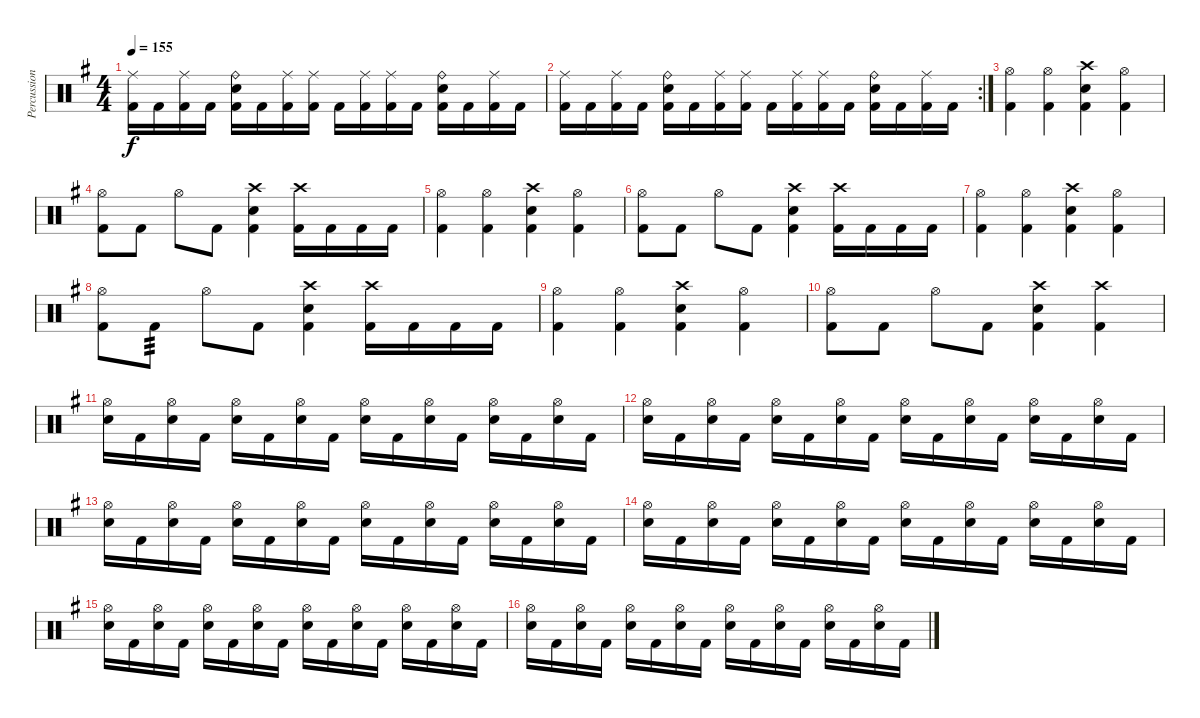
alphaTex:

\track ("Percussion" "Percussion") {instrument percussion}
\staff {score}
\articulation defaults
\ts (4 4)
\tempo 155
\clef neutral
\ks eminor
("Ride (middle)" "Kick (hit) 2").16{dy f} "Kick (hit) 2".16 ("Ride (middle)" "Kick (hit) 2").16 "Kick (hit) 2".16 ("Ride (bell)" "Electric Snare (hit)" "Kick (hit) 2").16 "Kick (hit) 2".16 ("Ride (middle)" "Kick (hit) 2").16 ("Ride (middle)" "Kick (hit) 2").16 "Kick (hit) 2".16 ("Ride (middle)" "Kick (hit) 2").16 ("Ride (middle)" "Kick (hit) 2").16 "Kick (hit) 2".16 ("Ride (bell)" "Electric Snare (hit)" "Kick (hit) 2").16 "Kick (hit) 2".16 ("Ride (middle)" "Kick (hit) 2").16 "Kick (hit) 2".16 |
\rc 2
("Ride (middle)" "Kick (hit) 2").16 "Kick (hit) 2".16 ("Ride (middle)" "Kick (hit) 2").16 "Kick (hit) 2".16 ("Ride (bell)" "Electric Snare (hit)" "Kick (hit) 2").16 "Kick (hit) 2".16 ("Ride (middle)" "Kick (hit) 2").16 ("Ride (middle)" "Kick (hit) 2").16 "Kick (hit) 2".16 ("Ride (middle)" "Kick (hit) 2").16 ("Ride (middle)" "Kick (hit) 2").16 "Kick (hit) 2".16 ("Ride (bell)" "Electric Snare (hit)" "Kick (hit) 2").16 "Kick (hit) 2".16 ("Ride (middle)" "Kick (hit) 2").16 "Kick (hit) 2".16 |
("Hi-Hat (open)" "Kick (hit) 2").4 ("Hi-Hat (open)" "Kick (hit) 2").4 ("Crash high (hit)" "Electric Snare (hit)" "Kick (hit) 2").4 ("Hi-Hat (open)" "Kick (hit) 2").4 |
("Hi-Hat (open)" "Kick (hit) 2").8 "Kick (hit) 2".8 "Hi-Hat (open)".8 "Kick (hit) 2".8 ("Crash high (hit)" "Electric Snare (hit)" "Kick (hit) 2").4 ("Crash high (hit)" "Kick (hit) 2").16 "Kick (hit) 2".16 "Kick (hit) 2".16 "Kick (hit) 2".16 |
("Hi-Hat (open)" "Kick (hit) 2").4 ("Hi-Hat (open)" "Kick (hit) 2").4 ("Crash high (hit)" "Electric Snare (hit)" "Kick (hit) 2").4 ("Hi-Hat (open)" "Kick (hit) 2").4 |
("Hi-Hat (open)" "Kick (hit) 2").8 "Kick (hit) 2".8 "Hi-Hat (open)".8 "Kick (hit) 2".8 ("Crash high (hit)" "Electric Snare (hit)" "Kick (hit) 2").4 ("Crash high (hit)" "Kick (hit) 2").16 "Kick (hit) 2".16 "Kick (hit) 2".16 "Kick (hit) 2".16 |
("Hi-Hat (open)" "Kick (hit) 2").4 ("Hi-Hat (open)" "Kick (hit) 2").4 ("Crash high (hit)" "Electric Snare (hit)" "Kick (hit) 2").4 ("Hi-Hat (open)" "Kick (hit) 2").4 |
("Hi-Hat (open)" "Kick (hit) 2").8 "Kick (hit) 2".8{tp 3} "Hi-Hat (open)".8 "Kick (hit) 2".8 ("Crash high (hit)" "Electric Snare (hit)" "Kick (hit) 2").4 ("Crash high (hit)" "Kick (hit) 2").16 "Kick (hit) 2".16 "Kick (hit) 2".16 "Kick (hit) 2".16 |
("Hi-Hat (open)" "Kick (hit) 2").4 ("Hi-Hat (open)" "Kick (hit) 2").4 ("Crash high (hit)" "Electric Snare (hit)" "Kick (hit) 2").4 ("Hi-Hat (open)" "Kick (hit) 2").4 |
("Hi-Hat (open)" "Kick (hit) 2").8 "Kick (hit) 2".8 "Hi-Hat (open)".8 "Kick (hit) 2".8 ("Crash high (hit)" "Electric Snare (hit)" "Kick (hit) 2").4 ("Crash high (hit)" "Kick (hit) 2").4 |
("Hi-Hat (open)" "Electric Snare (hit)").16 "Kick (hit) 2".16 ("Hi-Hat (open)" "Electric Snare (hit)").16 "Kick (hit) 2".16 ("Hi-Hat (open)" "Electric Snare (hit)").16 "Kick (hit) 2".16 ("Hi-Hat (open)" "Electric Snare (hit)").16 "Kick (hit) 2".16 ("Hi-Hat (open)" "Electric Snare (hit)").16 "Kick (hit) 2".16 ("Hi-Hat (open)" "Electric Snare (hit)").16 "Kick (hit) 2".16 ("Hi-Hat (open)" "Electric Snare (hit)").16 "Kick (hit) 2".16 ("Hi-Hat (open)" "Electric Snare (hit)").16 "Kick (hit) 2".16 |
("Hi-Hat (open)" "Electric Snare (hit)").16 "Kick (hit) 2".16 ("Hi-Hat (open)" "Electric Snare (hit)").16 "Kick (hit) 2".16 ("Hi-Hat (open)" "Electric Snare (hit)").16 "Kick (hit) 2".16 ("Hi-Hat (open)" "Electric Snare (hit)").16 "Kick (hit) 2".16 ("Hi-Hat (open)" "Electric Snare (hit)").16 "Kick (hit) 2".16 ("Hi-Hat (open)" "Electric Snare (hit)").16 "Kick (hit) 2".16 ("Hi-Hat (open)" "Electric Snare (hit)").16 "Kick (hit) 2".16 ("Hi-Hat (open)" "Electric Snare (hit)").16 "Kick (hit) 2".16 |
("Hi-Hat (open)" "Electric Snare (hit)").16 "Kick (hit) 2".16 ("Hi-Hat (open)" "Electric Snare (hit)").16 "Kick (hit) 2".16 ("Hi-Hat (open)" "Electric Snare (hit)").16 "Kick (hit) 2".16 ("Hi-Hat (open)" "Electric Snare (hit)").16 "Kick (hit) 2".16 ("Hi-Hat (open)" "Electric Snare (hit)").16 "Kick (hit) 2".16 ("Hi-Hat (open)" "Electric Snare (hit)").16 "Kick (hit) 2".16 ("Hi-Hat (open)" "Electric Snare (hit)").16 "Kick (hit) 2".16 ("Hi-Hat (open)" "Electric Snare (hit)").16 "Kick (hit) 2".16 |
("Hi-Hat (open)" "Electric Snare (hit)").16 "Kick (hit) 2".16 ("Hi-Hat (open)" "Electric Snare (hit)").16 "Kick (hit) 2".16 ("Hi-Hat (open)" "Electric Snare (hit)").16 "Kick (hit) 2".16 ("Hi-Hat (open)" "Electric Snare (hit)").16 "Kick (hit) 2".16 ("Hi-Hat (open)" "Electric Snare (hit)").16 "Kick (hit) 2".16 ("Hi-Hat (open)" "Electric Snare (hit)").16 "Kick (hit) 2".16 ("Hi-Hat (open)" "Electric Snare (hit)").16 "Kick (hit) 2".16 ("Hi-Hat (open)" "Electric Snare (hit)").16 "Kick (hit) 2".16 |
("Hi-Hat (open)" "Electric Snare (hit)").16 "Kick (hit) 2".16 ("Hi-Hat (open)" "Electric Snare (hit)").16 "Kick (hit) 2".16 ("Hi-Hat (open)" "Electric Snare (hit)").16 "Kick (hit) 2".16 ("Hi-Hat (open)" "Electric Snare (hit)").16 "Kick (hit) 2".16 ("Hi-Hat (open)" "Electric Snare (hit)").16 "Kick (hit) 2".16 ("Hi-Hat (open)" "Electric Snare (hit)").16 "Kick (hit) 2".16 ("Hi-Hat (open)" "Electric Snare (hit)").16 "Kick (hit) 2".16 ("Hi-Hat (open)" "Electric Snare (hit)").16 "Kick (hit) 2".16 |
("Hi-Hat (open)" "Electric Snare (hit)").16 "Kick (hit) 2".16 ("Hi-Hat (open)" "Electric Snare (hit)").16 "Kick (hit) 2".16 ("Hi-Hat (open)" "Electric Snare (hit)").16 "Kick (hit) 2".16 ("Hi-Hat (open)" "Electric Snare (hit)").16 "Kick (hit) 2".16 ("Hi-Hat (open)" "Electric Snare (hit)").16 "Kick (hit) 2".16 ("Hi-Hat (open)" "Electric Snare (hit)").16 "Kick (hit) 2".16 ("Hi-Hat (open)" "Electric Snare (hit)").16 "Kick (hit) 2".16 ("Hi-Hat (open)" "Electric Snare (hit)").16 "Kick (hit) 2".16
